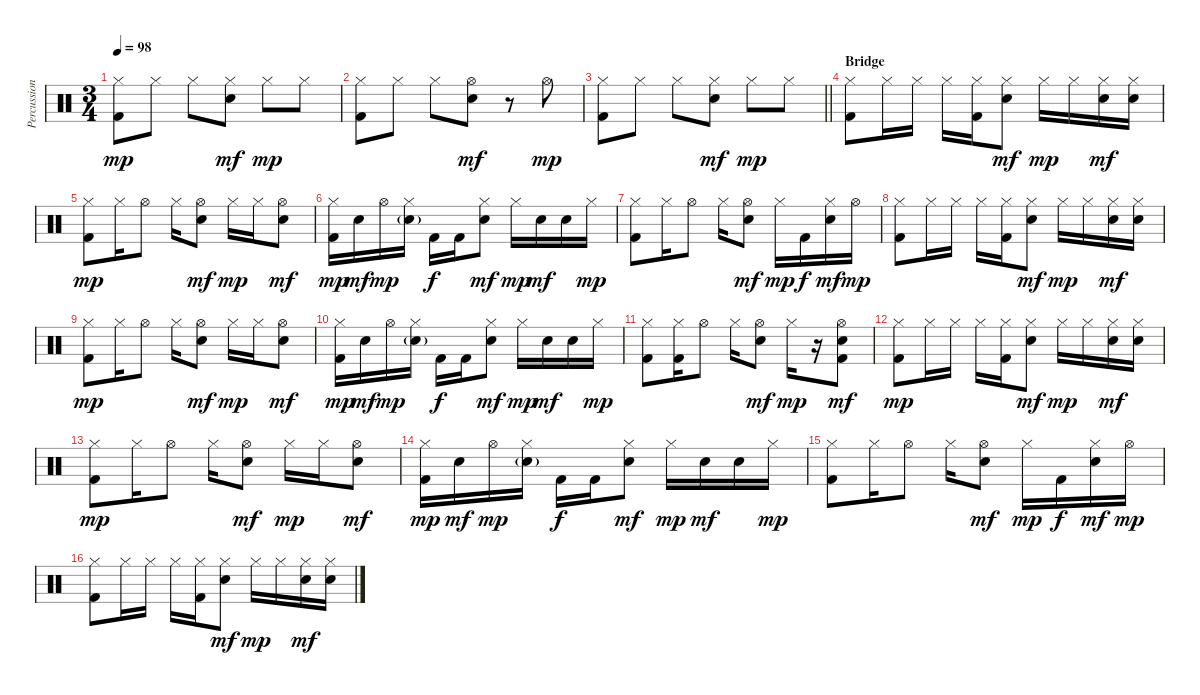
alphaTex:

\track ("Percussion" "Percussion") {instrument percussion}
\staff {score}
\articulation defaults
\ts (3 4)
\tempo 98
\clef neutral
\ks c
("Hi-Hat (closed)" "Kick (hit) 2").8{dy mp} "Hi-Hat (closed)".8 "Hi-Hat (closed)".8 ("Hi-Hat (closed)" "Electric Snare (hit)").8{dy mf} "Hi-Hat (closed)".8{dy mp} "Hi-Hat (closed)".8 |
("Hi-Hat (closed)" "Kick (hit) 2").8 "Hi-Hat (closed)".8 "Hi-Hat (closed)".8 ("Hi-Hat (open)" "Electric Snare (hit)").8{dy mf} r.8 "Hi-Hat (open)".8{dy mp} |
\barLineRight lightlight
("Hi-Hat (closed)" "Kick (hit) 2").8 "Hi-Hat (closed)".8 "Hi-Hat (closed)".8 ("Hi-Hat (closed)" "Electric Snare (hit)").8{dy mf} "Hi-Hat (closed)".8{dy mp} "Hi-Hat (closed)".8 |
\section ("" "Bridge")
("Hi-Hat (closed)" "Kick (hit) 2").8 "Hi-Hat (closed)".16 "Hi-Hat (closed)".16 "Hi-Hat (closed)".16 ("Hi-Hat (closed)" "Kick (hit) 2").16 ("Hi-Hat (closed)" "Electric Snare (hit)").8{dy mf} "Hi-Hat (closed)".16{dy mp} "Hi-Hat (closed)".16 ("Hi-Hat (closed)" "Electric Snare (hit)").16{dy mf} ("Hi-Hat (closed)" "Electric Snare (hit)").16 |
("Hi-Hat (closed)" "Kick (hit) 2").8{dy mp} "Hi-Hat (closed)".16 "Hi-Hat (open)".8 "Hi-Hat (closed)".16 ("Hi-Hat (open)" "Electric Snare (hit)").8{dy mf} "Hi-Hat (closed)".16{dy mp} "Hi-Hat (closed)".16 ("Hi-Hat (open)" "Electric Snare (hit)").8{dy mf} |
("Hi-Hat (closed)" "Kick (hit) 2").16{dy mp} "Electric Snare (hit)".16{dy mf} "Hi-Hat (open)".16{dy mp} ("Hi-Hat (closed)" "Electric Snare (hit)"{g}).16 "Kick (hit) 2".16{dy f} "Kick (hit) 2".16 ("Hi-Hat (closed)" "Electric Snare (hit)").8{dy mf} "Hi-Hat (closed)".16{dy mp} "Electric Snare (hit)".16{dy mf} "Electric Snare (hit)".16 "Hi-Hat (closed)".16{dy mp} |
("Hi-Hat (closed)" "Kick (hit) 2").8 "Hi-Hat (closed)".16 "Hi-Hat (open)".8 "Hi-Hat (closed)".16 ("Hi-Hat (open)" "Electric Snare (hit)").8{dy mf} "Hi-Hat (closed)".16{dy mp} "Kick (hit) 2".16{dy f} ("Hi-Hat (closed)" "Electric Snare (hit)").16{dy mf} "Hi-Hat (open)".16{dy mp} |
("Hi-Hat (closed)" "Kick (hit) 2").8 "Hi-Hat (closed)".16 "Hi-Hat (closed)".16 "Hi-Hat (closed)".16 ("Hi-Hat (closed)" "Kick (hit) 2").16 ("Hi-Hat (closed)" "Electric Snare (hit)").8{dy mf} "Hi-Hat (closed)".16{dy mp} "Hi-Hat (closed)".16 ("Hi-Hat (closed)" "Electric Snare (hit)").16{dy mf} ("Hi-Hat (closed)" "Electric Snare (hit)").16 |
("Hi-Hat (closed)" "Kick (hit) 2").8{dy mp} "Hi-Hat (closed)".16 "Hi-Hat (open)".8 "Hi-Hat (closed)".16 ("Hi-Hat (open)" "Electric Snare (hit)").8{dy mf} "Hi-Hat (closed)".16{dy mp} "Hi-Hat (closed)".16 ("Hi-Hat (open)" "Electric Snare (hit)").8{dy mf} |
("Hi-Hat (closed)" "Kick (hit) 2").16{dy mp} "Electric Snare (hit)".16{dy mf} "Hi-Hat (open)".16{dy mp} ("Hi-Hat (closed)" "Electric Snare (hit)"{g}).16 "Kick (hit) 2".16{dy f} "Kick (hit) 2".16 ("Hi-Hat (closed)" "Electric Snare (hit)").8{dy mf} "Hi-Hat (closed)".16{dy mp} "Electric Snare (hit)".16{dy mf} "Electric Snare (hit)".16 "Hi-Hat (closed)".16{dy mp} |
("Hi-Hat (closed)" "Kick (hit) 2").8 ("Hi-Hat (closed)" "Kick (hit) 2").16 "Hi-Hat (open)".8 "Hi-Hat (closed)".16 ("Hi-Hat (open)" "Electric Snare (hit)").8{dy mf} "Hi-Hat (closed)".16{dy mp} r.16 ("Hi-Hat (open)" "Electric Snare (hit)" "Kick (hit) 2").8{dy mf} |
("Hi-Hat (closed)" "Kick (hit) 2").8{dy mp} "Hi-Hat (closed)".16 "Hi-Hat (closed)".16 "Hi-Hat (closed)".16 ("Hi-Hat (closed)" "Kick (hit) 2").16 ("Hi-Hat (closed)" "Electric Snare (hit)").8{dy mf} "Hi-Hat (closed)".16{dy mp} "Hi-Hat (closed)".16 ("Hi-Hat (closed)" "Electric Snare (hit)").16{dy mf} ("Hi-Hat (closed)" "Electric Snare (hit)").16 |
("Hi-Hat (closed)" "Kick (hit) 2").8{dy mp} "Hi-Hat (closed)".16 "Hi-Hat (open)".8 "Hi-Hat (closed)".16 ("Hi-Hat (open)" "Electric Snare (hit)").8{dy mf} "Hi-Hat (closed)".16{dy mp} "Hi-Hat (closed)".16 ("Hi-Hat (open)" "Electric Snare (hit)").8{dy mf} |
("Hi-Hat (closed)" "Kick (hit) 2").16{dy mp} "Electric Snare (hit)".16{dy mf} "Hi-Hat (open)".16{dy mp} ("Hi-Hat (closed)" "Electric Snare (hit)"{g}).16 "Kick (hit) 2".16{dy f} "Kick (hit) 2".16 ("Hi-Hat (closed)" "Electric Snare (hit)").8{dy mf} "Hi-Hat (closed)".16{dy mp} "Electric Snare (hit)".16{dy mf} "Electric Snare (hit)".16 "Hi-Hat (closed)".16{dy mp} |
("Hi-Hat (closed)" "Kick (hit) 2").8 "Hi-Hat (closed)".16 "Hi-Hat (open)".8 "Hi-Hat (closed)".16 ("Hi-Hat (open)" "Electric Snare (hit)").8{dy mf} "Hi-Hat (closed)".16{dy mp} "Kick (hit) 2".16{dy f} ("Hi-Hat (closed)" "Electric Snare (hit)").16{dy mf} "Hi-Hat (open)".16{dy mp} |
("Hi-Hat (closed)" "Kick (hit) 2").8 "Hi-Hat (closed)".16 "Hi-Hat (closed)".16 "Hi-Hat (closed)".16 ("Hi-Hat (closed)" "Kick (hit) 2").16 ("Hi-Hat (closed)" "Electric Snare (hit)").8{dy mf} "Hi-Hat (closed)".16{dy mp} "Hi-Hat (closed)".16 ("Hi-Hat (closed)" "Electric Snare (hit)").16{dy mf} ("Hi-Hat (closed)" "Electric Snare (hit)").16
